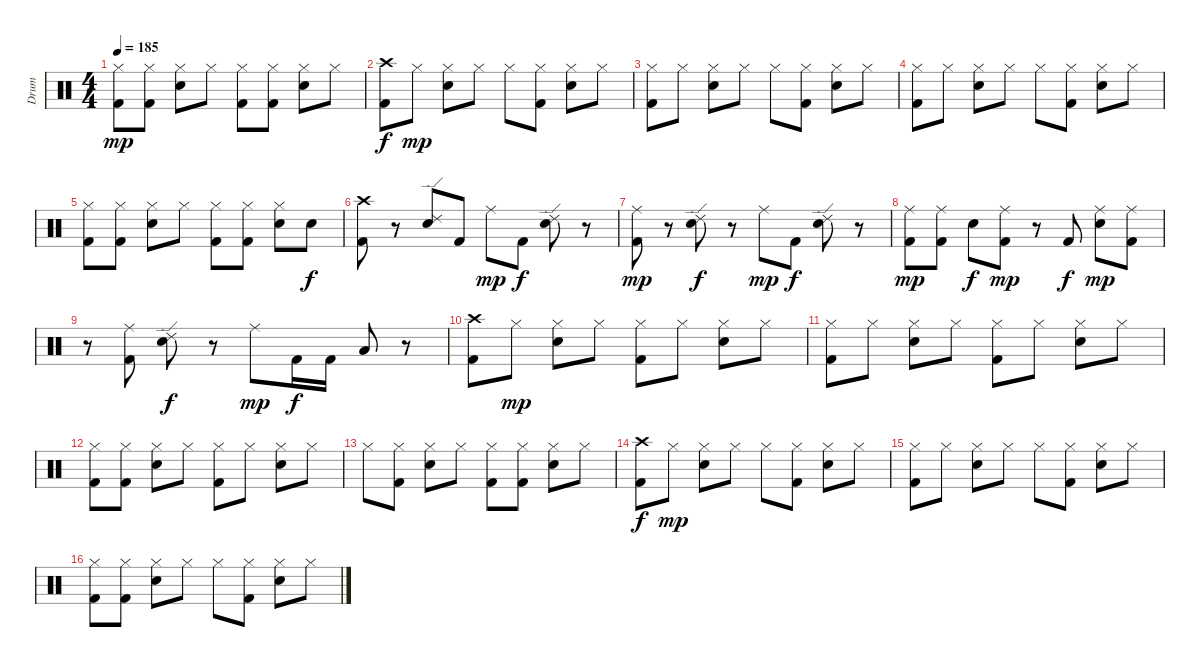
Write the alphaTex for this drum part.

\track ("Drum" "Drum") {instrument percussion}
\staff {score}
\articulation defaults
\ts (4 4)
\tempo 185
\clef neutral
\ks c
("Hi-Hat (closed)" "Kick (hit) 2").8{dy mp} ("Hi-Hat (closed)" "Kick (hit) 2").8 ("Hi-Hat (closed)" "Electric Snare (hit)").8 "Hi-Hat (closed)".8 ("Hi-Hat (closed)" "Kick (hit) 2").8 ("Hi-Hat (closed)" "Kick (hit) 2").8 ("Hi-Hat (closed)" "Electric Snare (hit)").8 "Hi-Hat (closed)".8 |
("Crash high (hit)" "Kick (hit) 2").8{dy f} "Hi-Hat (closed)".8{dy mp} ("Hi-Hat (closed)" "Electric Snare (hit)").8 "Hi-Hat (closed)".8 "Hi-Hat (closed)".8 ("Hi-Hat (closed)" "Kick (hit) 2").8 ("Hi-Hat (closed)" "Electric Snare (hit)").8 "Hi-Hat (closed)".8 |
("Kick (hit) 2" "Hi-Hat (closed)").8 "Hi-Hat (closed)".8 ("Hi-Hat (closed)" "Electric Snare (hit)").8 "Hi-Hat (closed)".8 "Hi-Hat (closed)".8 ("Hi-Hat (closed)" "Kick (hit) 2").8 ("Hi-Hat (closed)" "Electric Snare (hit)").8 "Hi-Hat (closed)".8 |
("Kick (hit) 2" "Hi-Hat (closed)").8 "Hi-Hat (closed)".8 ("Hi-Hat (closed)" "Electric Snare (hit)").8 "Hi-Hat (closed)".8 "Hi-Hat (closed)".8 ("Hi-Hat (closed)" "Kick (hit) 2").8 ("Hi-Hat (closed)" "Electric Snare (hit)").8 "Hi-Hat (closed)".8 |
("Hi-Hat (closed)" "Kick (hit) 2").8 ("Hi-Hat (closed)" "Kick (hit) 2").8 ("Hi-Hat (closed)" "Electric Snare (hit)").8 "Hi-Hat (closed)".8 ("Hi-Hat (closed)" "Kick (hit) 2").8 ("Hi-Hat (closed)" "Kick (hit) 2").8 ("Hi-Hat (closed)" "Electric Snare (hit)").8 "Electric Snare (hit)".8{dy f} |
("Crash high (hit)" "Kick (hit) 2").8 r.8 ("Ride (edge) 2" "Electric Snare (hit)").8 "Kick (hit) 2".8 "Ride (middle)".8{dy mp} "Kick (hit) 2".8{dy f} ("Ride (edge) 2" "Electric Snare (hit)").8 r.8 |
("Ride (middle)" "Kick (hit) 2").8{dy mp} r.8 ("Ride (edge) 2" "Electric Snare (hit)").8{dy f} r.8 "Ride (middle)".8{dy mp} "Kick (hit) 2".8{dy f} ("Ride (edge) 2" "Electric Snare (hit)").8 r.8 |
("Ride (middle)" "Kick (hit) 2").8{dy mp} ("Ride (middle)" "Kick (hit) 2").8 "Electric Snare (hit)".8{dy f} ("Ride (middle)" "Kick (hit) 2").8{dy mp} r.8 "Kick (hit) 2".8{dy f} ("Electric Snare (hit)" "Ride (middle)").8{dy mp} ("Kick (hit) 2" "Ride (middle)").8 |
r.8 ("Ride (middle)" "Kick (hit) 2").8 ("Ride (edge) 2" "Electric Snare (hit)").8{dy f} r.8 "Ride (middle)".8{dy mp} "Kick (hit) 2".16{dy f} "Kick (hit) 2".16 "Low Tom (hit)".8 r.8 |
("Kick (hit) 2" "Crash high (hit)").8 "Hi-Hat (closed)".8{dy mp} ("Hi-Hat (closed)" "Electric Snare (hit)").8 "Hi-Hat (closed)".8 ("Kick (hit) 2" "Hi-Hat (closed)").8 "Hi-Hat (closed)".8 ("Electric Snare (hit)" "Hi-Hat (closed)").8 "Hi-Hat (closed)".8 |
("Kick (hit) 2" "Hi-Hat (closed)").8 "Hi-Hat (closed)".8 ("Hi-Hat (closed)" "Electric Snare (hit)").8 "Hi-Hat (closed)".8 ("Kick (hit) 2" "Hi-Hat (closed)").8 "Hi-Hat (closed)".8 ("Hi-Hat (closed)" "Electric Snare (hit)").8 "Hi-Hat (closed)".8 |
("Hi-Hat (closed)" "Kick (hit) 2").8 ("Hi-Hat (closed)" "Kick (hit) 2").8 ("Hi-Hat (closed)" "Electric Snare (hit)").8 "Hi-Hat (closed)".8 ("Kick (hit) 2" "Hi-Hat (closed)").8 "Hi-Hat (closed)".8 ("Hi-Hat (closed)" "Electric Snare (hit)").8 "Hi-Hat (closed)".8 |
"Hi-Hat (closed)".8 ("Hi-Hat (closed)" "Kick (hit) 2").8 ("Hi-Hat (closed)" "Electric Snare (hit)").8 "Hi-Hat (closed)".8 ("Hi-Hat (closed)" "Kick (hit) 2").8 ("Hi-Hat (closed)" "Kick (hit) 2").8 ("Hi-Hat (closed)" "Electric Snare (hit)").8 "Hi-Hat (closed)".8 |
("Crash high (hit)" "Kick (hit) 2").8{dy f} "Hi-Hat (closed)".8{dy mp} ("Hi-Hat (closed)" "Electric Snare (hit)").8 "Hi-Hat (closed)".8 "Hi-Hat (closed)".8 ("Hi-Hat (closed)" "Kick (hit) 2").8 ("Hi-Hat (closed)" "Electric Snare (hit)").8 "Hi-Hat (closed)".8 |
("Kick (hit) 2" "Hi-Hat (closed)").8 "Hi-Hat (closed)".8 ("Hi-Hat (closed)" "Electric Snare (hit)").8 "Hi-Hat (closed)".8 "Hi-Hat (closed)".8 ("Hi-Hat (closed)" "Kick (hit) 2").8 ("Hi-Hat (closed)" "Electric Snare (hit)").8 "Hi-Hat (closed)".8 |
("Kick (hit) 2" "Hi-Hat (closed)").8 ("Kick (hit) 2" "Hi-Hat (closed)").8 ("Hi-Hat (closed)" "Electric Snare (hit)").8 "Hi-Hat (closed)".8 "Hi-Hat (closed)".8 ("Hi-Hat (closed)" "Kick (hit) 2").8 ("Hi-Hat (closed)" "Electric Snare (hit)").8 "Hi-Hat (closed)".8
